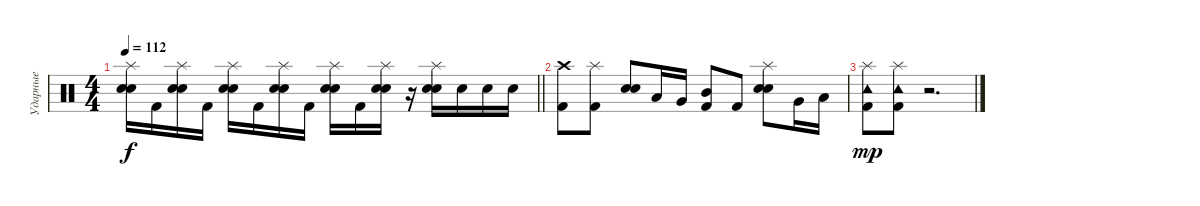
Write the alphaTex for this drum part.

\track ("Ударные" "Ударные") {instrument percussion}
\staff {score}
\articulation defaults
\ts (4 4)
\tempo 112
\clef neutral
\barLineRight lightlight
\ks c
("Splash (hit)" "Electric Snare (hit)" "Snare (hit) 2").16{dy f} "Kick (hit) 2".16 ("Splash (hit)" "Electric Snare (hit)" "Snare (hit) 2").16 "Kick (hit) 2".16 ("Splash (hit)" "Electric Snare (hit)" "Snare (hit) 2").16 "Kick (hit) 2".16 ("Splash (hit)" "Electric Snare (hit)" "Snare (hit) 2").16 "Kick (hit) 2".16 ("Splash (hit)" "Electric Snare (hit)" "Snare (hit) 2").16 "Kick (hit) 2".16 ("Splash (hit)" "Electric Snare (hit)" "Snare (hit) 2").16 r.16 ("Splash (hit)" "Electric Snare (hit)" "Snare (hit) 2").16 "Electric Snare (hit)".16 "Electric Snare (hit)".16 "Electric Snare (hit)".16 |
\section ("" "")
("Crash high (hit)" "Kick (hit) 2").8 ("Splash (hit)" "Kick (hit) 2").8 ("Electric Snare (hit)" "Snare (hit) 2").8 "Low Tom (hit)".16 "Very Low Tom (hit)".16 ("Mid Tom (hit)" "Kick (hit) 2").8 "Kick (hit) 2".8 ("Splash (hit)" "Electric Snare (hit)" "Snare (hit) 2").8 "Very Low Tom (hit)".16 "Low Tom (hit)".16 |
("Tambourine (hit)" "Splash (hit)" "Kick (hit) 2").8{dy mp} ("Tambourine (hit)" "Splash (hit)" "Kick (hit) 2").8 r.2{d}
